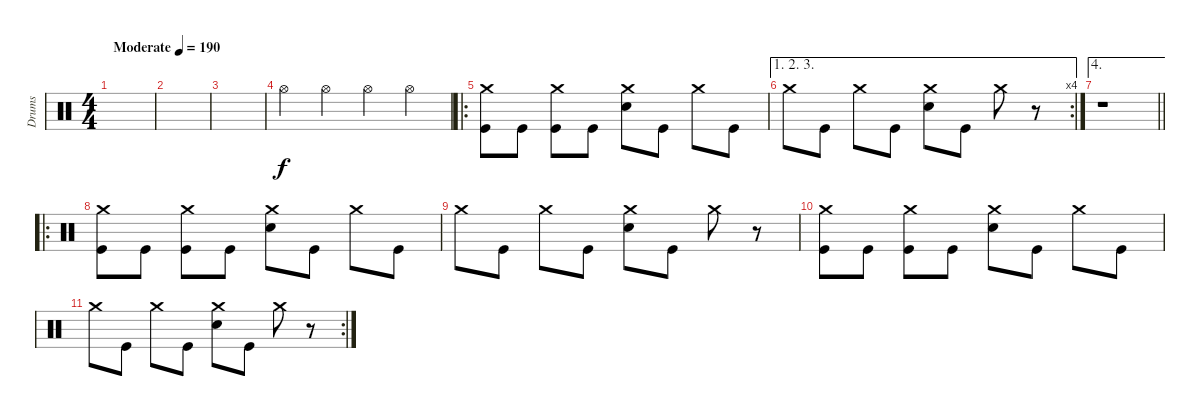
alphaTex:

\track ("Drums" "Drums") {instrument percussion}
\staff {score}
\articulation defaults
\ts (4 4)
\tempo (190 "Moderate")
\clef neutral
\ks c
|
|
|
"Hi-Hat (open)".4 "Hi-Hat (open)".4 "Hi-Hat (open)".4 "Hi-Hat (open)".4 |
\ro
("Crash medium (hit)" "Kick (hit)").8 "Kick (hit)".8 ("Crash medium (hit)" "Kick (hit)").8 "Kick (hit)".8 ("Crash medium (hit)" "Snare (hit) 2").8 "Kick (hit)".8 "Crash medium (hit)".8 "Kick (hit)".8 |
\ae (1 2 3)
\rc 4 "Crash medium (hit)".8 "Kick (hit)".8 "Crash medium (hit)".8 "Kick (hit)".8
("Crash medium (hit)" "Snare (hit) 2").8 "Kick (hit)".8 "Crash medium (hit)".8 r.8 |
\ae 4
\barLineRight lightlight
r.1 |
\ro
("Crash medium (hit)" "Kick (hit)").8 "Kick (hit)".8 ("Crash medium (hit)" "Kick (hit)").8 "Kick (hit)".8 ("Crash medium (hit)" "Snare (hit) 2").8 "Kick (hit)".8 "Crash medium (hit)".8 "Kick (hit)".8 |
"Crash medium (hit)".8 "Kick (hit)".8 "Crash medium (hit)".8 "Kick (hit)".8 ("Crash medium (hit)" "Snare (hit) 2").8 "Kick (hit)".8 "Crash medium (hit)".8 r.8 |
("Crash medium (hit)" "Kick (hit)").8 "Kick (hit)".8 ("Crash medium (hit)" "Kick (hit)").8 "Kick (hit)".8 ("Crash medium (hit)" "Snare (hit) 2").8 "Kick (hit)".8 "Crash medium (hit)".8 "Kick (hit)".8 |
\rc 2 "Crash medium (hit)".8 "Kick (hit)".8 "Crash medium (hit)".8 "Kick (hit)".8
("Crash medium (hit)" "Snare (hit) 2").8 "Kick (hit)".8 "Crash medium (hit)".8 r.8
